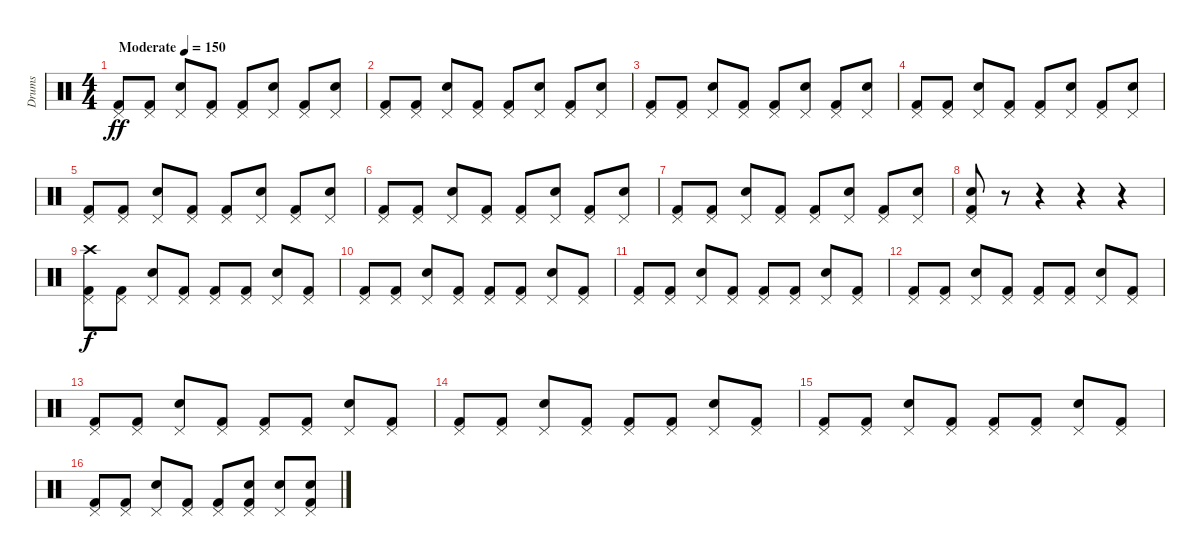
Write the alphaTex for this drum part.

\track ("Drums" "Drums") {instrument percussion}
\staff
\articulation defaults
\ts (4 4)
\tempo (150 "Moderate")
\clef neutral
\ks c
("Pedal Hi-Hat (hit)" "Kick (hit) 2").8{dy ff} ("Pedal Hi-Hat (hit)" "Kick (hit) 2").8 ("Pedal Hi-Hat (hit)" "Snare (hit) 2").8 ("Pedal Hi-Hat (hit)" "Kick (hit) 2").8 ("Pedal Hi-Hat (hit)" "Kick (hit) 2").8 ("Pedal Hi-Hat (hit)" "Snare (hit) 2").8 ("Pedal Hi-Hat (hit)" "Kick (hit) 2").8 ("Pedal Hi-Hat (hit)" "Snare (hit) 2").8 |
("Pedal Hi-Hat (hit)" "Kick (hit) 2").8 ("Pedal Hi-Hat (hit)" "Kick (hit) 2").8 ("Pedal Hi-Hat (hit)" "Snare (hit) 2").8 ("Pedal Hi-Hat (hit)" "Kick (hit) 2").8 ("Pedal Hi-Hat (hit)" "Kick (hit) 2").8 ("Pedal Hi-Hat (hit)" "Snare (hit) 2").8 ("Pedal Hi-Hat (hit)" "Kick (hit) 2").8 ("Pedal Hi-Hat (hit)" "Snare (hit) 2").8 |
("Pedal Hi-Hat (hit)" "Kick (hit) 2").8 ("Pedal Hi-Hat (hit)" "Kick (hit) 2").8 ("Pedal Hi-Hat (hit)" "Snare (hit) 2").8 ("Pedal Hi-Hat (hit)" "Kick (hit) 2").8 ("Pedal Hi-Hat (hit)" "Kick (hit) 2").8 ("Pedal Hi-Hat (hit)" "Snare (hit) 2").8 ("Pedal Hi-Hat (hit)" "Kick (hit) 2").8 ("Pedal Hi-Hat (hit)" "Snare (hit) 2").8 |
("Pedal Hi-Hat (hit)" "Kick (hit) 2").8 ("Pedal Hi-Hat (hit)" "Kick (hit) 2").8 ("Pedal Hi-Hat (hit)" "Snare (hit) 2").8 ("Pedal Hi-Hat (hit)" "Kick (hit) 2").8 ("Pedal Hi-Hat (hit)" "Kick (hit) 2").8 ("Pedal Hi-Hat (hit)" "Snare (hit) 2").8 ("Pedal Hi-Hat (hit)" "Kick (hit) 2").8 ("Pedal Hi-Hat (hit)" "Snare (hit) 2").8 |
("Pedal Hi-Hat (hit)" "Kick (hit) 2").8 ("Pedal Hi-Hat (hit)" "Kick (hit) 2").8 ("Pedal Hi-Hat (hit)" "Snare (hit) 2").8 ("Pedal Hi-Hat (hit)" "Kick (hit) 2").8 ("Pedal Hi-Hat (hit)" "Kick (hit) 2").8 ("Pedal Hi-Hat (hit)" "Snare (hit) 2").8 ("Pedal Hi-Hat (hit)" "Kick (hit) 2").8 ("Pedal Hi-Hat (hit)" "Snare (hit) 2").8 |
("Pedal Hi-Hat (hit)" "Kick (hit) 2").8 ("Pedal Hi-Hat (hit)" "Kick (hit) 2").8 ("Pedal Hi-Hat (hit)" "Snare (hit) 2").8 ("Pedal Hi-Hat (hit)" "Kick (hit) 2").8 ("Pedal Hi-Hat (hit)" "Kick (hit) 2").8 ("Pedal Hi-Hat (hit)" "Snare (hit) 2").8 ("Pedal Hi-Hat (hit)" "Kick (hit) 2").8 ("Pedal Hi-Hat (hit)" "Snare (hit) 2").8 |
("Pedal Hi-Hat (hit)" "Kick (hit) 2").8 ("Pedal Hi-Hat (hit)" "Kick (hit) 2").8 ("Pedal Hi-Hat (hit)" "Snare (hit) 2").8 ("Pedal Hi-Hat (hit)" "Kick (hit) 2").8 ("Pedal Hi-Hat (hit)" "Kick (hit) 2").8 ("Pedal Hi-Hat (hit)" "Snare (hit) 2").8 ("Pedal Hi-Hat (hit)" "Kick (hit) 2").8 ("Pedal Hi-Hat (hit)" "Snare (hit) 2").8 |
("Pedal Hi-Hat (hit)" "Snare (hit) 2" "Kick (hit) 2").8 r.8 r.4 r.4 r.4 |
("Pedal Hi-Hat (hit)" "Crash high (hit)" "Kick (hit) 2").8{dy f} ("Pedal Hi-Hat (hit)" "Kick (hit) 2").8 ("Pedal Hi-Hat (hit)" "Snare (hit) 2").8 ("Pedal Hi-Hat (hit)" "Kick (hit) 2").8 ("Pedal Hi-Hat (hit)" "Kick (hit) 2").8 ("Pedal Hi-Hat (hit)" "Kick (hit) 2").8 ("Pedal Hi-Hat (hit)" "Snare (hit) 2").8 ("Pedal Hi-Hat (hit)" "Kick (hit) 2").8 |
("Pedal Hi-Hat (hit)" "Kick (hit) 2").8 ("Pedal Hi-Hat (hit)" "Kick (hit) 2").8 ("Pedal Hi-Hat (hit)" "Snare (hit) 2").8 ("Pedal Hi-Hat (hit)" "Kick (hit) 2").8 ("Pedal Hi-Hat (hit)" "Kick (hit) 2").8 ("Pedal Hi-Hat (hit)" "Kick (hit) 2").8 ("Pedal Hi-Hat (hit)" "Snare (hit) 2").8 ("Pedal Hi-Hat (hit)" "Kick (hit) 2").8 |
("Pedal Hi-Hat (hit)" "Kick (hit) 2").8 ("Pedal Hi-Hat (hit)" "Kick (hit) 2").8 ("Pedal Hi-Hat (hit)" "Snare (hit) 2").8 ("Pedal Hi-Hat (hit)" "Kick (hit) 2").8 ("Pedal Hi-Hat (hit)" "Kick (hit) 2").8 ("Pedal Hi-Hat (hit)" "Kick (hit) 2").8 ("Pedal Hi-Hat (hit)" "Snare (hit) 2").8 ("Pedal Hi-Hat (hit)" "Kick (hit) 2").8 |
("Pedal Hi-Hat (hit)" "Kick (hit) 2").8 ("Pedal Hi-Hat (hit)" "Kick (hit) 2").8 ("Pedal Hi-Hat (hit)" "Snare (hit) 2").8 ("Pedal Hi-Hat (hit)" "Kick (hit) 2").8 ("Pedal Hi-Hat (hit)" "Kick (hit) 2").8 ("Pedal Hi-Hat (hit)" "Kick (hit) 2").8 ("Pedal Hi-Hat (hit)" "Snare (hit) 2").8 ("Pedal Hi-Hat (hit)" "Kick (hit) 2").8 |
("Pedal Hi-Hat (hit)" "Kick (hit) 2").8 ("Pedal Hi-Hat (hit)" "Kick (hit) 2").8 ("Pedal Hi-Hat (hit)" "Snare (hit) 2").8 ("Pedal Hi-Hat (hit)" "Kick (hit) 2").8 ("Pedal Hi-Hat (hit)" "Kick (hit) 2").8 ("Pedal Hi-Hat (hit)" "Kick (hit) 2").8 ("Pedal Hi-Hat (hit)" "Snare (hit) 2").8 ("Pedal Hi-Hat (hit)" "Kick (hit) 2").8 |
("Pedal Hi-Hat (hit)" "Kick (hit) 2").8 ("Pedal Hi-Hat (hit)" "Kick (hit) 2").8 ("Pedal Hi-Hat (hit)" "Snare (hit) 2").8 ("Pedal Hi-Hat (hit)" "Kick (hit) 2").8 ("Pedal Hi-Hat (hit)" "Kick (hit) 2").8 ("Pedal Hi-Hat (hit)" "Kick (hit) 2").8 ("Pedal Hi-Hat (hit)" "Snare (hit) 2").8 ("Pedal Hi-Hat (hit)" "Kick (hit) 2").8 |
("Pedal Hi-Hat (hit)" "Kick (hit) 2").8 ("Pedal Hi-Hat (hit)" "Kick (hit) 2").8 ("Pedal Hi-Hat (hit)" "Snare (hit) 2").8 ("Pedal Hi-Hat (hit)" "Kick (hit) 2").8 ("Pedal Hi-Hat (hit)" "Kick (hit) 2").8 ("Pedal Hi-Hat (hit)" "Kick (hit) 2").8 ("Pedal Hi-Hat (hit)" "Snare (hit) 2").8 ("Pedal Hi-Hat (hit)" "Kick (hit) 2").8 |
("Pedal Hi-Hat (hit)" "Kick (hit) 2").8 ("Pedal Hi-Hat (hit)" "Kick (hit) 2").8 ("Pedal Hi-Hat (hit)" "Snare (hit) 2").8 ("Pedal Hi-Hat (hit)" "Kick (hit) 2").8 ("Pedal Hi-Hat (hit)" "Kick (hit) 2").8 ("Pedal Hi-Hat (hit)" "Snare (hit) 2" "Kick (hit) 2").8 ("Pedal Hi-Hat (hit)" "Snare (hit) 2").8 ("Pedal Hi-Hat (hit)" "Snare (hit) 2" "Kick (hit) 2").8
